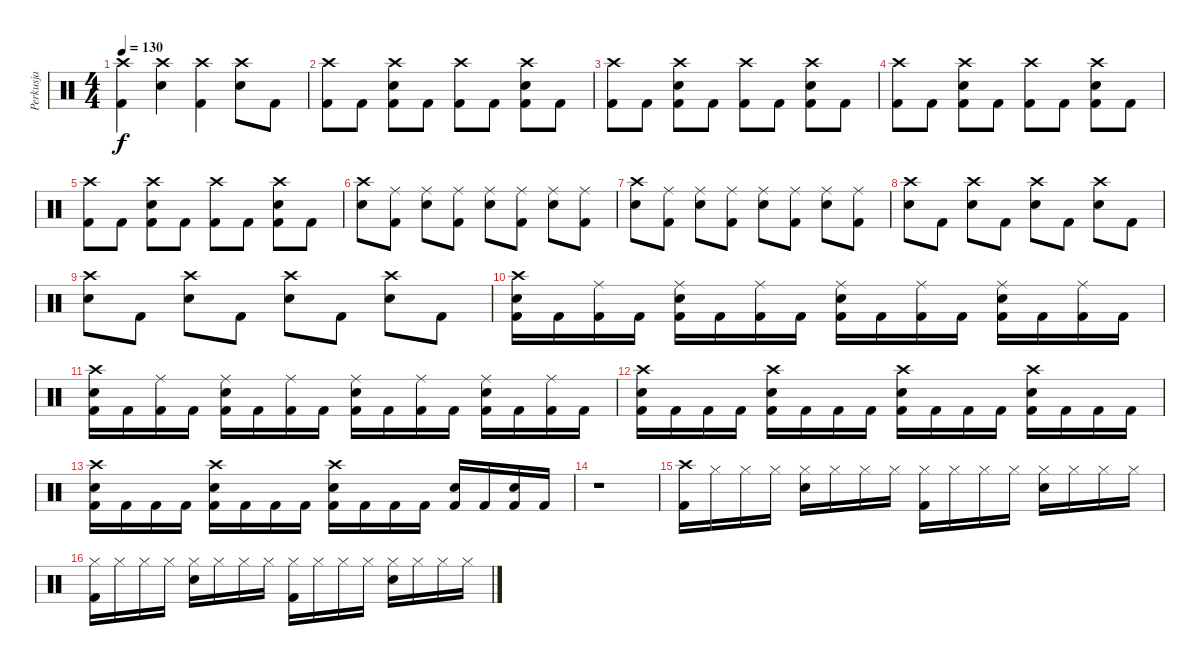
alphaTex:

\track ("Perkusja" "Perkusja") {instrument percussion}
\staff {score}
\articulation defaults
\ts (4 4)
\tempo 130
\clef neutral
\ks c
("Crash high (hit)" "Kick (hit) 2").4{dy f} ("Crash high (hit)" "Snare (hit) 2").4 ("Crash high (hit)" "Kick (hit) 2").4 ("Crash high (hit)" "Snare (hit) 2").8 "Kick (hit) 2".8 |
("Crash high (hit)" "Kick (hit) 2").8 "Kick (hit) 2".8 ("Crash high (hit)" "Snare (hit) 2" "Kick (hit) 2").8 "Kick (hit) 2".8 ("Crash high (hit)" "Kick (hit) 2").8 "Kick (hit) 2".8 ("Crash high (hit)" "Snare (hit) 2" "Kick (hit) 2").8 "Kick (hit) 2".8 |
("Crash high (hit)" "Kick (hit) 2").8 "Kick (hit) 2".8 ("Crash high (hit)" "Snare (hit) 2" "Kick (hit) 2").8 "Kick (hit) 2".8 ("Crash high (hit)" "Kick (hit) 2").8 "Kick (hit) 2".8 ("Crash high (hit)" "Snare (hit) 2" "Kick (hit) 2").8 "Kick (hit) 2".8 |
("Crash high (hit)" "Kick (hit) 2").8 "Kick (hit) 2".8 ("Crash high (hit)" "Snare (hit) 2" "Kick (hit) 2").8 "Kick (hit) 2".8 ("Crash high (hit)" "Kick (hit) 2").8 "Kick (hit) 2".8 ("Crash high (hit)" "Snare (hit) 2" "Kick (hit) 2").8 "Kick (hit) 2".8 |
("Crash high (hit)" "Kick (hit) 2").8 "Kick (hit) 2".8 ("Crash high (hit)" "Snare (hit) 2" "Kick (hit) 2").8 "Kick (hit) 2".8 ("Crash high (hit)" "Kick (hit) 2").8 "Kick (hit) 2".8 ("Crash high (hit)" "Snare (hit) 2" "Kick (hit) 2").8 "Kick (hit) 2".8 |
("Crash high (hit)" "Snare (hit) 2").8 ("Ride (middle)" "Kick (hit) 2").8 ("Ride (middle)" "Snare (hit) 2").8 ("Ride (middle)" "Kick (hit) 2").8 ("Ride (middle)" "Snare (hit) 2").8 ("Ride (middle)" "Kick (hit) 2").8 ("Ride (middle)" "Snare (hit) 2").8 ("Ride (middle)" "Kick (hit) 2").8 |
("Crash high (hit)" "Snare (hit) 2").8 ("Ride (middle)" "Kick (hit) 2").8 ("Ride (middle)" "Snare (hit) 2").8 ("Ride (middle)" "Kick (hit) 2").8 ("Ride (middle)" "Snare (hit) 2").8 ("Ride (middle)" "Kick (hit) 2").8 ("Ride (middle)" "Snare (hit) 2").8 ("Ride (middle)" "Kick (hit) 2").8 |
("Crash high (hit)" "Snare (hit) 2").8 "Kick (hit) 2".8 ("Crash high (hit)" "Snare (hit) 2").8 "Kick (hit) 2".8 ("Crash high (hit)" "Snare (hit) 2").8 "Kick (hit) 2".8 ("Crash high (hit)" "Snare (hit) 2").8 "Kick (hit) 2".8 |
("Crash high (hit)" "Snare (hit) 2").8 "Kick (hit) 2".8 ("Crash high (hit)" "Snare (hit) 2").8 "Kick (hit) 2".8 ("Crash high (hit)" "Snare (hit) 2").8 "Kick (hit) 2".8 ("Crash high (hit)" "Snare (hit) 2").8 "Kick (hit) 2".8 |
("Crash high (hit)" "Snare (hit) 2" "Kick (hit) 2").16 "Kick (hit) 2".16 ("Ride (middle)" "Kick (hit) 2").16 "Kick (hit) 2".16 ("Ride (middle)" "Snare (hit) 2" "Kick (hit) 2").16 "Kick (hit) 2".16 ("Ride (middle)" "Kick (hit) 2").16 "Kick (hit) 2".16 ("Ride (middle)" "Snare (hit) 2" "Kick (hit) 2").16 "Kick (hit) 2".16 ("Ride (middle)" "Kick (hit) 2").16 "Kick (hit) 2".16 ("Ride (middle)" "Snare (hit) 2" "Kick (hit) 2").16 "Kick (hit) 2".16 ("Ride (middle)" "Kick (hit) 2").16 "Kick (hit) 2".16 |
("Crash high (hit)" "Snare (hit) 2" "Kick (hit) 2").16 "Kick (hit) 2".16 ("Ride (middle)" "Kick (hit) 2").16 "Kick (hit) 2".16 ("Ride (middle)" "Snare (hit) 2" "Kick (hit) 2").16 "Kick (hit) 2".16 ("Ride (middle)" "Kick (hit) 2").16 "Kick (hit) 2".16 ("Ride (middle)" "Snare (hit) 2" "Kick (hit) 2").16 "Kick (hit) 2".16 ("Ride (middle)" "Kick (hit) 2").16 "Kick (hit) 2".16 ("Ride (middle)" "Snare (hit) 2" "Kick (hit) 2").16 "Kick (hit) 2".16 ("Ride (middle)" "Kick (hit) 2").16 "Kick (hit) 2".16 |
("Crash high (hit)" "Snare (hit) 2" "Kick (hit) 2").16 "Kick (hit) 2".16 "Kick (hit) 2".16 "Kick (hit) 2".16 ("Crash high (hit)" "Snare (hit) 2" "Kick (hit) 2").16 "Kick (hit) 2".16 "Kick (hit) 2".16 "Kick (hit) 2".16 ("Crash high (hit)" "Snare (hit) 2" "Kick (hit) 2").16 "Kick (hit) 2".16 "Kick (hit) 2".16 "Kick (hit) 2".16 ("Crash high (hit)" "Snare (hit) 2" "Kick (hit) 2").16 "Kick (hit) 2".16 "Kick (hit) 2".16 "Kick (hit) 2".16 |
("Crash high (hit)" "Snare (hit) 2" "Kick (hit) 2").16 "Kick (hit) 2".16 "Kick (hit) 2".16 "Kick (hit) 2".16 ("Crash high (hit)" "Snare (hit) 2" "Kick (hit) 2").16 "Kick (hit) 2".16 "Kick (hit) 2".16 "Kick (hit) 2".16 ("Crash high (hit)" "Snare (hit) 2" "Kick (hit) 2").16 "Kick (hit) 2".16 "Kick (hit) 2".16 "Kick (hit) 2".16 ("Snare (hit) 2" "Kick (hit) 2").16 "Kick (hit) 2".16 ("Snare (hit) 2" "Kick (hit) 2").16 "Kick (hit) 2".16 |
r.1 |
("Crash high (hit)" "Kick (hit) 2").16 "Hi-Hat (closed)".16 "Hi-Hat (closed)".16 "Hi-Hat (closed)".16 ("Hi-Hat (closed)" "Snare (hit) 2").16 "Hi-Hat (closed)".16 "Hi-Hat (closed)".16 "Hi-Hat (closed)".16 ("Hi-Hat (closed)" "Kick (hit) 2").16 "Hi-Hat (closed)".16 "Hi-Hat (closed)".16 "Hi-Hat (closed)".16 ("Hi-Hat (closed)" "Snare (hit) 2").16 "Hi-Hat (closed)".16 "Hi-Hat (closed)".16 "Hi-Hat (closed)".16 |
("Hi-Hat (closed)" "Kick (hit) 2").16 "Hi-Hat (closed)".16 "Hi-Hat (closed)".16 "Hi-Hat (closed)".16 ("Hi-Hat (closed)" "Snare (hit) 2").16 "Hi-Hat (closed)".16 "Hi-Hat (closed)".16 "Hi-Hat (closed)".16 ("Hi-Hat (closed)" "Kick (hit) 2").16 "Hi-Hat (closed)".16 "Hi-Hat (closed)".16 "Hi-Hat (closed)".16 ("Hi-Hat (closed)" "Snare (hit) 2").16 "Hi-Hat (closed)".16 "Hi-Hat (closed)".16 "Hi-Hat (closed)".16
